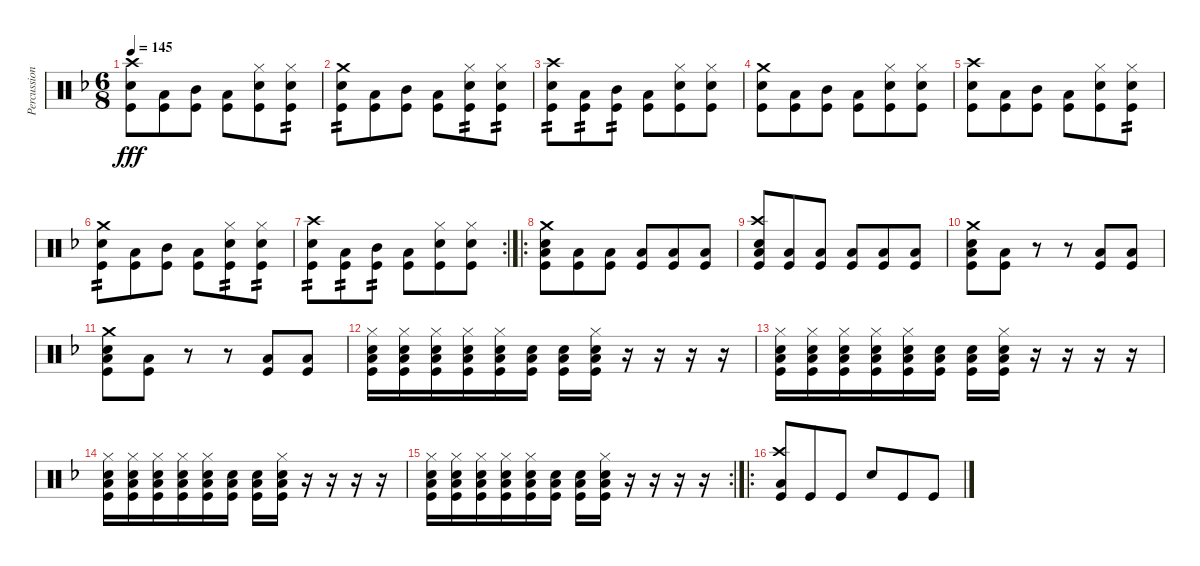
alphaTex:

\track ("Percussion" "Percussion") {instrument percussion}
\staff {score}
\articulation defaults
\ts (6 8)
\tempo 145
\clef neutral
\ks dminor
("Kick (hit)" "Electric Snare (hit)" "Crash high (hit)").8{dy fff} ("Kick (hit)" "Low Tom (hit)").8 ("Kick (hit)" "Mid Tom (hit)").8 ("Kick (hit)" "Low Floor Tom (hit)").8 ("Kick (hit)" "Electric Snare (hit)" "Hi-Hat (closed)").8 ("Kick (hit)" "Electric Snare (hit)" "Hi-Hat (closed)").8{tp 2} |
("Kick (hit)" "Electric Snare (hit)" "Crash medium (hit)").8{tp 2} ("Kick (hit)" "Low Tom (hit)").8 ("Kick (hit)" "Mid Tom (hit)").8 ("Kick (hit)" "Low Floor Tom (hit)").8 ("Kick (hit)" "Electric Snare (hit)" "Hi-Hat (closed)").8{tp 2} ("Kick (hit)" "Electric Snare (hit)" "Hi-Hat (closed)").8{tp 2} |
("Kick (hit)" "Electric Snare (hit)" "Crash high (hit)").8{tp 2} ("Kick (hit)" "Low Tom (hit)").8{tp 2} ("Kick (hit)" "Mid Tom (hit)").8{tp 2} ("Kick (hit)" "Low Floor Tom (hit)").8 ("Kick (hit)" "Electric Snare (hit)" "Hi-Hat (closed)").8 ("Kick (hit)" "Electric Snare (hit)" "Hi-Hat (closed)").8 |
("Kick (hit)" "Electric Snare (hit)" "Crash medium (hit)").8 ("Kick (hit)" "Low Tom (hit)").8 ("Kick (hit)" "Mid Tom (hit)").8 ("Kick (hit)" "Low Floor Tom (hit)").8 ("Kick (hit)" "Electric Snare (hit)" "Hi-Hat (closed)").8 ("Kick (hit)" "Electric Snare (hit)" "Hi-Hat (closed)").8 |
("Kick (hit)" "Electric Snare (hit)" "Crash high (hit)").8 ("Kick (hit)" "Low Tom (hit)").8 ("Kick (hit)" "Mid Tom (hit)").8 ("Kick (hit)" "Low Floor Tom (hit)").8 ("Kick (hit)" "Electric Snare (hit)" "Hi-Hat (closed)").8 ("Kick (hit)" "Electric Snare (hit)" "Hi-Hat (closed)").8{tp 2} |
("Kick (hit)" "Electric Snare (hit)" "Crash medium (hit)").8{tp 2} ("Kick (hit)" "Low Tom (hit)").8 ("Kick (hit)" "Mid Tom (hit)").8 ("Kick (hit)" "Low Floor Tom (hit)").8 ("Kick (hit)" "Electric Snare (hit)" "Hi-Hat (closed)").8{tp 2} ("Kick (hit)" "Electric Snare (hit)" "Hi-Hat (closed)").8{tp 2} |
\rc 2
("Kick (hit)" "Electric Snare (hit)" "Crash high (hit)").8{tp 2} ("Kick (hit)" "Low Tom (hit)").8{tp 2} ("Kick (hit)" "Mid Tom (hit)").8{tp 2} ("Kick (hit)" "Low Floor Tom (hit)").8 ("Kick (hit)" "Electric Snare (hit)" "Hi-Hat (closed)").8 ("Kick (hit)" "Electric Snare (hit)" "Hi-Hat (closed)").8 |
\ro
("Kick (hit)" "Low Floor Tom (hit)" "Electric Snare (hit)" "Crash medium (hit)").8 ("Kick (hit)" "Low Floor Tom (hit)").8 ("Kick (hit)" "Low Floor Tom (hit)").8 ("Kick (hit)" "Low Floor Tom (hit)").8 ("Kick (hit)" "Low Floor Tom (hit)").8 ("Kick (hit)" "Low Floor Tom (hit)").8 |
("Kick (hit)" "Low Floor Tom (hit)" "Electric Snare (hit)" "Crash high (hit)").8 ("Kick (hit)" "Low Floor Tom (hit)").8 ("Kick (hit)" "Low Floor Tom (hit)").8 ("Kick (hit)" "Low Floor Tom (hit)").8 ("Kick (hit)" "Low Floor Tom (hit)").8 ("Kick (hit)" "Low Floor Tom (hit)").8 |
("Kick (hit)" "Low Floor Tom (hit)" "Electric Snare (hit)" "Crash medium (hit)").8 ("Kick (hit)" "Low Floor Tom (hit)").8 r.8 r.8 ("Kick (hit)" "Low Floor Tom (hit)").8 ("Kick (hit)" "Low Floor Tom (hit)").8 |
("Kick (hit)" "Low Floor Tom (hit)" "Electric Snare (hit)" "Crash medium (hit)").8 ("Kick (hit)" "Low Floor Tom (hit)").8 r.8 r.8 ("Kick (hit)" "Low Floor Tom (hit)").8 ("Kick (hit)" "Low Floor Tom (hit)").8 |
("Kick (hit)" "Low Floor Tom (hit)" "Electric Snare (hit)" "Hi-Hat (closed)").16 ("Kick (hit)" "Low Floor Tom (hit)" "Electric Snare (hit)" "Hi-Hat (closed)").16 ("Kick (hit)" "Low Floor Tom (hit)" "Electric Snare (hit)" "Hi-Hat (closed)").16 ("Kick (hit)" "Low Floor Tom (hit)" "Electric Snare (hit)" "Hi-Hat (closed)").16 ("Kick (hit)" "Low Floor Tom (hit)" "Electric Snare (hit)" "Hi-Hat (closed)").16 ("Kick (hit)" "Low Floor Tom (hit)" "Electric Snare (hit)").16 ("Kick (hit)" "Low Floor Tom (hit)" "Electric Snare (hit)").16 ("Kick (hit)" "Low Floor Tom (hit)" "Electric Snare (hit)" "Hi-Hat (closed)").16 r.16 r.16 r.16 r.16 |
("Kick (hit)" "Low Floor Tom (hit)" "Electric Snare (hit)" "Hi-Hat (closed)").16 ("Kick (hit)" "Low Floor Tom (hit)" "Electric Snare (hit)" "Hi-Hat (closed)").16 ("Kick (hit)" "Low Floor Tom (hit)" "Electric Snare (hit)" "Hi-Hat (closed)").16 ("Kick (hit)" "Low Floor Tom (hit)" "Electric Snare (hit)" "Hi-Hat (closed)").16 ("Kick (hit)" "Low Floor Tom (hit)" "Electric Snare (hit)" "Hi-Hat (closed)").16 ("Kick (hit)" "Low Floor Tom (hit)" "Electric Snare (hit)").16 ("Kick (hit)" "Low Floor Tom (hit)" "Electric Snare (hit)").16 ("Kick (hit)" "Low Floor Tom (hit)" "Electric Snare (hit)" "Hi-Hat (closed)").16 r.16 r.16 r.16 r.16 |
("Kick (hit)" "Low Floor Tom (hit)" "Electric Snare (hit)" "Hi-Hat (closed)").16 ("Kick (hit)" "Low Floor Tom (hit)" "Electric Snare (hit)" "Hi-Hat (closed)").16 ("Kick (hit)" "Low Floor Tom (hit)" "Electric Snare (hit)" "Hi-Hat (closed)").16 ("Kick (hit)" "Low Floor Tom (hit)" "Electric Snare (hit)" "Hi-Hat (closed)").16 ("Kick (hit)" "Low Floor Tom (hit)" "Electric Snare (hit)" "Hi-Hat (closed)").16 ("Kick (hit)" "Low Floor Tom (hit)" "Electric Snare (hit)").16 ("Kick (hit)" "Low Floor Tom (hit)" "Electric Snare (hit)").16 ("Kick (hit)" "Low Floor Tom (hit)" "Electric Snare (hit)" "Hi-Hat (closed)").16 r.16 r.16 r.16 r.16 |
\rc 2
("Kick (hit)" "Low Floor Tom (hit)" "Electric Snare (hit)" "Hi-Hat (closed)").16 ("Kick (hit)" "Low Floor Tom (hit)" "Electric Snare (hit)" "Hi-Hat (closed)").16 ("Kick (hit)" "Low Floor Tom (hit)" "Electric Snare (hit)" "Hi-Hat (closed)").16 ("Kick (hit)" "Low Floor Tom (hit)" "Electric Snare (hit)" "Hi-Hat (closed)").16 ("Kick (hit)" "Low Floor Tom (hit)" "Electric Snare (hit)" "Hi-Hat (closed)").16 ("Kick (hit)" "Low Floor Tom (hit)" "Electric Snare (hit)").16 ("Kick (hit)" "Low Floor Tom (hit)" "Electric Snare (hit)").16 ("Kick (hit)" "Low Floor Tom (hit)" "Electric Snare (hit)" "Hi-Hat (closed)").16 r.16 r.16 r.16 r.16 |
\ro
("Kick (hit)" "Low Floor Tom (hit)" "Crash high (hit)").8 "Kick (hit)".8 "Kick (hit)".8 "Electric Snare (hit)".8 "Kick (hit)".8 "Kick (hit)".8
